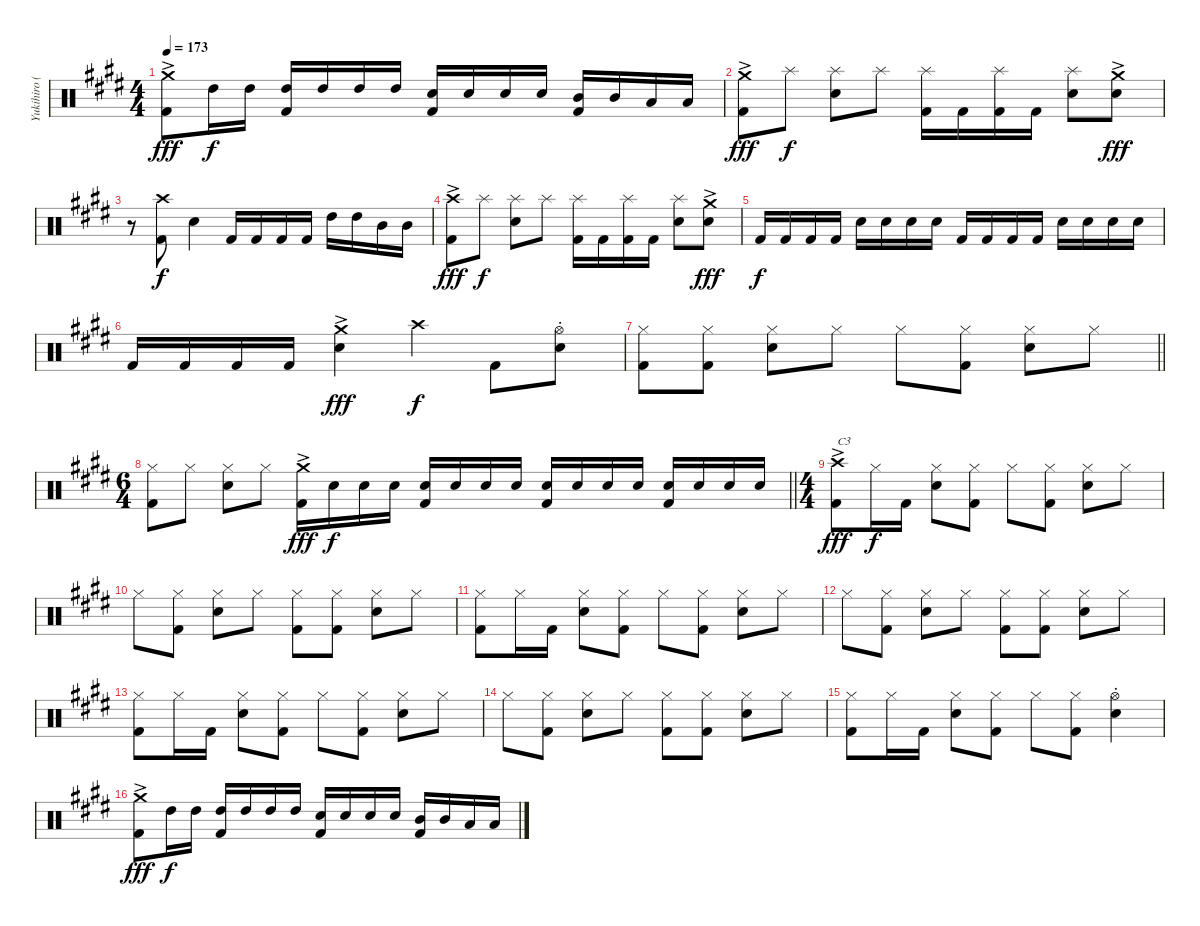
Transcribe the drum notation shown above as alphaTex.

\track ("Yukihiro (Drums)" "Yukihiro (") {instrument percussion}
\staff {score}
\articulation defaults
\ts (4 4)
\tempo 173
\clef neutral
\ks e
("Crash medium (hit)"{ac} "Kick (hit) 2").8{dy fff} "High Tom (hit)".16{dy f} "High Tom (hit)".16 ("High Tom (hit)" "Kick (hit) 2").16 "High Tom (hit)".16 "High Tom (hit)".16 "High Tom (hit)".16 ("Electric Snare (hit)" "Kick (hit) 2").16 "Electric Snare (hit)".16 "Electric Snare (hit)".16 "Electric Snare (hit)".16 ("Mid Tom (hit)" "Kick (hit) 2").16 "Mid Tom (hit)".16 "Low Tom (hit)".16 "Low Tom (hit)".16 |
("Crash medium (hit)"{ac} "Kick (hit) 2").8{dy fff} "Splash (hit)".8{dy f} ("Splash (hit)" "Electric Snare (hit)").8 "Splash (hit)".8 ("Splash (hit)" "Kick (hit) 2").16 "Kick (hit) 2".16 ("Splash (hit)" "Kick (hit) 2").16 "Kick (hit) 2".16 ("Splash (hit)" "Electric Snare (hit)").8 ("Crash medium (hit)"{ac} "Electric Snare (hit)").8{dy fff} |
r.8 ("Crash high (hit)" "Kick (hit) 2").8{dy f} "Electric Snare (hit)".4 "Kick (hit) 2".16 "Kick (hit) 2".16 "Kick (hit) 2".16 "Kick (hit) 2".16 "High Tom (hit)".16 "High Tom (hit)".16 "Mid Tom (hit)".16 "Mid Tom (hit)".16 |
("Crash high (hit)"{ac} "Kick (hit) 2").8{dy fff} "Splash (hit)".8{dy f} ("Splash (hit)" "Electric Snare (hit)").8 "Splash (hit)".8 ("Splash (hit)" "Kick (hit) 2").16 "Kick (hit) 2".16 ("Splash (hit)" "Kick (hit) 2").16 "Kick (hit) 2".16 ("Splash (hit)" "Electric Snare (hit)").8 ("Crash medium (hit)"{ac} "Electric Snare (hit)").8{dy fff} |
"Kick (hit) 2".16{dy f} "Kick (hit) 2".16 "Kick (hit) 2".16 "Kick (hit) 2".16 "Electric Snare (hit)".16 "Electric Snare (hit)".16 "Electric Snare (hit)".16 "Electric Snare (hit)".16 "Kick (hit) 2".16 "Kick (hit) 2".16 "Kick (hit) 2".16 "Kick (hit) 2".16 "Electric Snare (hit)".16 "Electric Snare (hit)".16 "Electric Snare (hit)".16 "Electric Snare (hit)".16 |
"Kick (hit) 2".16 "Kick (hit) 2".16 "Kick (hit) 2".16 "Kick (hit) 2".16 ("Crash medium (hit)"{ac} "Electric Snare (hit)").4{dy fff} "Crash high (hit)".4{dy f} "Kick (hit) 2".8 ("Hi-Hat (open)"{st} "Electric Snare (hit)").8 |
\barLineRight lightlight
("Hi-Hat (closed)" "Kick (hit) 2").8 ("Hi-Hat (closed)" "Kick (hit) 2").8 ("Hi-Hat (closed)" "Electric Snare (hit)").8 "Hi-Hat (closed)".8 "Hi-Hat (closed)".8 ("Hi-Hat (closed)" "Kick (hit) 2").8 ("Hi-Hat (closed)" "Electric Snare (hit)").8 "Hi-Hat (closed)".8 |
\ts (6 4)
\barLineRight lightlight
("Hi-Hat (closed)" "Kick (hit) 2").8 "Hi-Hat (closed)".8 ("Hi-Hat (closed)" "Electric Snare (hit)").8 "Hi-Hat (closed)".8 ("Crash medium (hit)"{ac} "Kick (hit) 2").16{dy fff} "Electric Snare (hit)".16{dy f} "Electric Snare (hit)".16 "Electric Snare (hit)".16 ("Electric Snare (hit)" "Kick (hit) 2").16 "Electric Snare (hit)".16 "Electric Snare (hit)".16 "Electric Snare (hit)".16 ("Electric Snare (hit)" "Kick (hit) 2").16 "Electric Snare (hit)".16 "Electric Snare (hit)".16 "Electric Snare (hit)".16 ("Electric Snare (hit)" "Kick (hit) 2").16 "Electric Snare (hit)".16 "Electric Snare (hit)".16 "Electric Snare (hit)".16 |
\ts (4 4)
("Crash high (hit)"{ac} "Kick (hit) 2").8{txt "C3" dy fff} "Hi-Hat (closed)".16{dy f} "Kick (hit) 2".16 ("Hi-Hat (closed)" "Electric Snare (hit)").8 ("Hi-Hat (closed)" "Kick (hit) 2").8 "Hi-Hat (closed)".8 ("Hi-Hat (closed)" "Kick (hit) 2").8 ("Hi-Hat (closed)" "Electric Snare (hit)").8 "Hi-Hat (closed)".8 |
"Hi-Hat (closed)".8 ("Hi-Hat (closed)" "Kick (hit) 2").8 ("Hi-Hat (closed)" "Electric Snare (hit)").8 "Hi-Hat (closed)".8 ("Hi-Hat (closed)" "Kick (hit) 2").8 ("Hi-Hat (closed)" "Kick (hit) 2").8 ("Hi-Hat (closed)" "Electric Snare (hit)").8 "Hi-Hat (closed)".8 |
("Hi-Hat (closed)" "Kick (hit) 2").8 "Hi-Hat (closed)".16 "Kick (hit) 2".16 ("Hi-Hat (closed)" "Electric Snare (hit)").8 ("Hi-Hat (closed)" "Kick (hit) 2").8 "Hi-Hat (closed)".8 ("Hi-Hat (closed)" "Kick (hit) 2").8 ("Hi-Hat (closed)" "Electric Snare (hit)").8 "Hi-Hat (closed)".8 |
"Hi-Hat (closed)".8 ("Hi-Hat (closed)" "Kick (hit) 2").8 ("Hi-Hat (closed)" "Electric Snare (hit)").8 "Hi-Hat (closed)".8 ("Hi-Hat (closed)" "Kick (hit) 2").8 ("Hi-Hat (closed)" "Kick (hit) 2").8 ("Hi-Hat (closed)" "Electric Snare (hit)").8 "Hi-Hat (closed)".8 |
("Hi-Hat (closed)" "Kick (hit) 2").8 "Hi-Hat (closed)".16 "Kick (hit) 2".16 ("Hi-Hat (closed)" "Electric Snare (hit)").8 ("Hi-Hat (closed)" "Kick (hit) 2").8 "Hi-Hat (closed)".8 ("Hi-Hat (closed)" "Kick (hit) 2").8 ("Hi-Hat (closed)" "Electric Snare (hit)").8 "Hi-Hat (closed)".8 |
"Hi-Hat (closed)".8 ("Hi-Hat (closed)" "Kick (hit) 2").8 ("Hi-Hat (closed)" "Electric Snare (hit)").8 "Hi-Hat (closed)".8 ("Hi-Hat (closed)" "Kick (hit) 2").8 ("Hi-Hat (closed)" "Kick (hit) 2").8 ("Hi-Hat (closed)" "Electric Snare (hit)").8 "Hi-Hat (closed)".8 |
("Hi-Hat (closed)" "Kick (hit) 2").8 "Hi-Hat (closed)".16 "Kick (hit) 2".16 ("Hi-Hat (closed)" "Electric Snare (hit)").8 ("Hi-Hat (closed)" "Kick (hit) 2").8 "Hi-Hat (closed)".8 ("Hi-Hat (closed)" "Kick (hit) 2").8 ("Hi-Hat (open)"{st} "Electric Snare (hit)").4 |
("Crash medium (hit)"{ac} "Kick (hit) 2").8{dy fff} "High Tom (hit)".16{dy f} "High Tom (hit)".16 ("High Tom (hit)" "Kick (hit) 2").16 "High Tom (hit)".16 "High Tom (hit)".16 "High Tom (hit)".16 ("Electric Snare (hit)" "Kick (hit) 2").16 "Electric Snare (hit)".16 "Electric Snare (hit)".16 "Electric Snare (hit)".16 ("Mid Tom (hit)" "Kick (hit) 2").16 "Mid Tom (hit)".16 "Low Tom (hit)".16 "Low Tom (hit)".16
